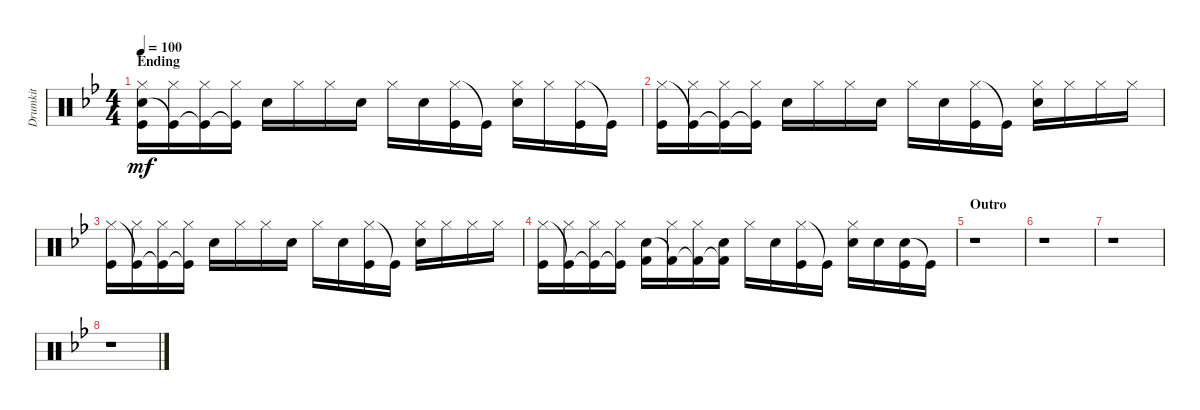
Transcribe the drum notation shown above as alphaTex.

\track ("Drumkit" "Drumkit") {instrument percussion}
\staff {score}
\articulation defaults
\ts (4 4)
\section ("" "Ending")
\tempo 100
\clef neutral
\ks gminor
("Snare (hit) 2" "Hi-Hat (closed)" "Kick (hit)").16{dy mf} ("Kick (hit)"{t} "Hi-Hat (closed)").16 ("Kick (hit)"{t} "Hi-Hat (closed)").16 ("Kick (hit)"{t} "Hi-Hat (closed)").16 "Snare (hit) 2".16 "Hi-Hat (closed)".16 "Hi-Hat (closed)".16 "Electric Snare (hit)".16 "Hi-Hat (closed)".16 "Electric Snare (hit)".16 ("Hi-Hat (closed)" "Kick (hit)").16 "Kick (hit)"{t}.16 ("Hi-Hat (closed)" "Snare (hit) 2").16 "Hi-Hat (closed)".16 ("Hi-Hat (closed)" "Kick (hit)").16 "Kick (hit)"{t}.16 |
("Hi-Hat (closed)" "Kick (hit)").16 ("Kick (hit)"{t} "Hi-Hat (closed)").16 ("Kick (hit)"{t} "Hi-Hat (closed)").16 ("Kick (hit)"{t} "Hi-Hat (closed)").16 "Snare (hit) 2".16 "Hi-Hat (closed)".16 "Hi-Hat (closed)".16 "Electric Snare (hit)".16 "Hi-Hat (closed)".16 "Electric Snare (hit)".16 ("Hi-Hat (closed)" "Kick (hit)").16 "Kick (hit)"{t}.16 ("Hi-Hat (closed)" "Snare (hit) 2").16 "Hi-Hat (closed)".16 "Hi-Hat (closed)".16 "Hi-Hat (closed)".16 |
("Hi-Hat (closed)" "Kick (hit)").16 ("Kick (hit)"{t} "Hi-Hat (closed)").16 ("Kick (hit)"{t} "Hi-Hat (closed)").16 ("Kick (hit)"{t} "Hi-Hat (closed)").16 "Snare (hit) 2".16 "Hi-Hat (closed)".16 "Hi-Hat (closed)".16 "Electric Snare (hit)".16 "Hi-Hat (closed)".16 "Electric Snare (hit)".16 ("Hi-Hat (closed)" "Kick (hit)").16 "Kick (hit)"{t}.16 ("Hi-Hat (closed)" "Snare (hit) 2").16 "Hi-Hat (closed)".16 "Hi-Hat (closed)".16 "Hi-Hat (closed)".16 |
("Hi-Hat (closed)" "Kick (hit)").16 ("Kick (hit)"{t} "Hi-Hat (closed)").16 ("Kick (hit)"{t} "Hi-Hat (closed)").16 ("Kick (hit)"{t} "Hi-Hat (closed)").16 ("Snare (hit) 2" "Kick (hit) 2").16 ("Kick (hit) 2"{t} "Hi-Hat (closed)").16 ("Kick (hit) 2"{t} "Hi-Hat (closed)").16 ("Kick (hit) 2"{t} "Electric Snare (hit)").16 "Hi-Hat (closed)".16 "Electric Snare (hit)".16 ("Hi-Hat (closed)" "Kick (hit)").16 "Kick (hit)"{t}.16 ("Hi-Hat (closed)" "Snare (hit) 2").16 "Snare (hit) 2".16 ("Snare (hit) 2" "Kick (hit)").16 "Kick (hit)"{t}.16 |
\section ("" "Outro")
r.1 |
r.1 |
r.1 |
r.1
